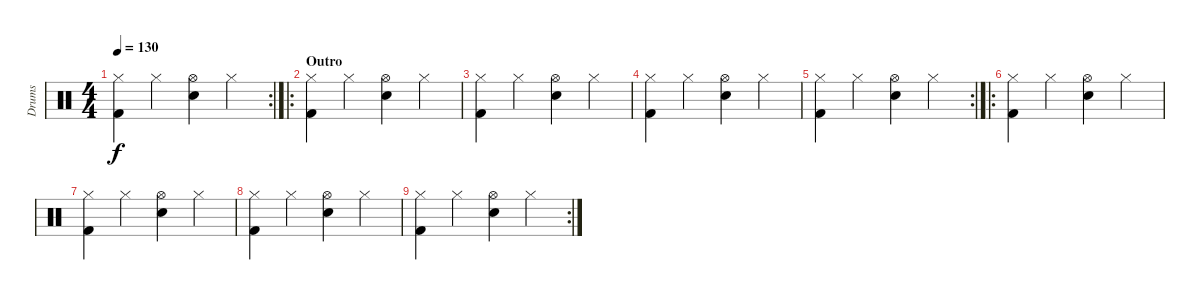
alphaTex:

\track ("Drums" "Drums") {instrument percussion}
\staff {score}
\articulation defaults
\rc 2
\ts (4 4)
\tempo 130
\clef neutral
\ks c
("Kick (hit) 2" "Hi-Hat (closed)").4{dy f} "Hi-Hat (closed)".4 ("Hi-Hat (open)" "Snare (hit) 2").4 "Hi-Hat (closed)".4 |
\ro
\section ("" "Outro")
("Kick (hit) 2" "Hi-Hat (closed)").4 "Hi-Hat (closed)".4 ("Hi-Hat (open)" "Snare (hit) 2").4 "Hi-Hat (closed)".4 |
("Kick (hit) 2" "Hi-Hat (closed)").4 "Hi-Hat (closed)".4 ("Hi-Hat (open)" "Snare (hit) 2").4 "Hi-Hat (closed)".4 |
("Kick (hit) 2" "Hi-Hat (closed)").4 "Hi-Hat (closed)".4 ("Hi-Hat (open)" "Snare (hit) 2").4 "Hi-Hat (closed)".4 |
\rc 2
("Kick (hit) 2" "Hi-Hat (closed)").4 "Hi-Hat (closed)".4 ("Hi-Hat (open)" "Snare (hit) 2").4 "Hi-Hat (closed)".4 |
\ro
("Kick (hit) 2" "Hi-Hat (closed)").4 "Hi-Hat (closed)".4 ("Hi-Hat (open)" "Snare (hit) 2").4 "Hi-Hat (closed)".4 |
("Kick (hit) 2" "Hi-Hat (closed)").4 "Hi-Hat (closed)".4 ("Hi-Hat (open)" "Snare (hit) 2").4 "Hi-Hat (closed)".4 |
("Kick (hit) 2" "Hi-Hat (closed)").4 "Hi-Hat (closed)".4 ("Hi-Hat (open)" "Snare (hit) 2").4 "Hi-Hat (closed)".4 |
\rc 2
("Kick (hit) 2" "Hi-Hat (closed)").4 "Hi-Hat (closed)".4 ("Hi-Hat (open)" "Snare (hit) 2").4 "Hi-Hat (closed)".4
